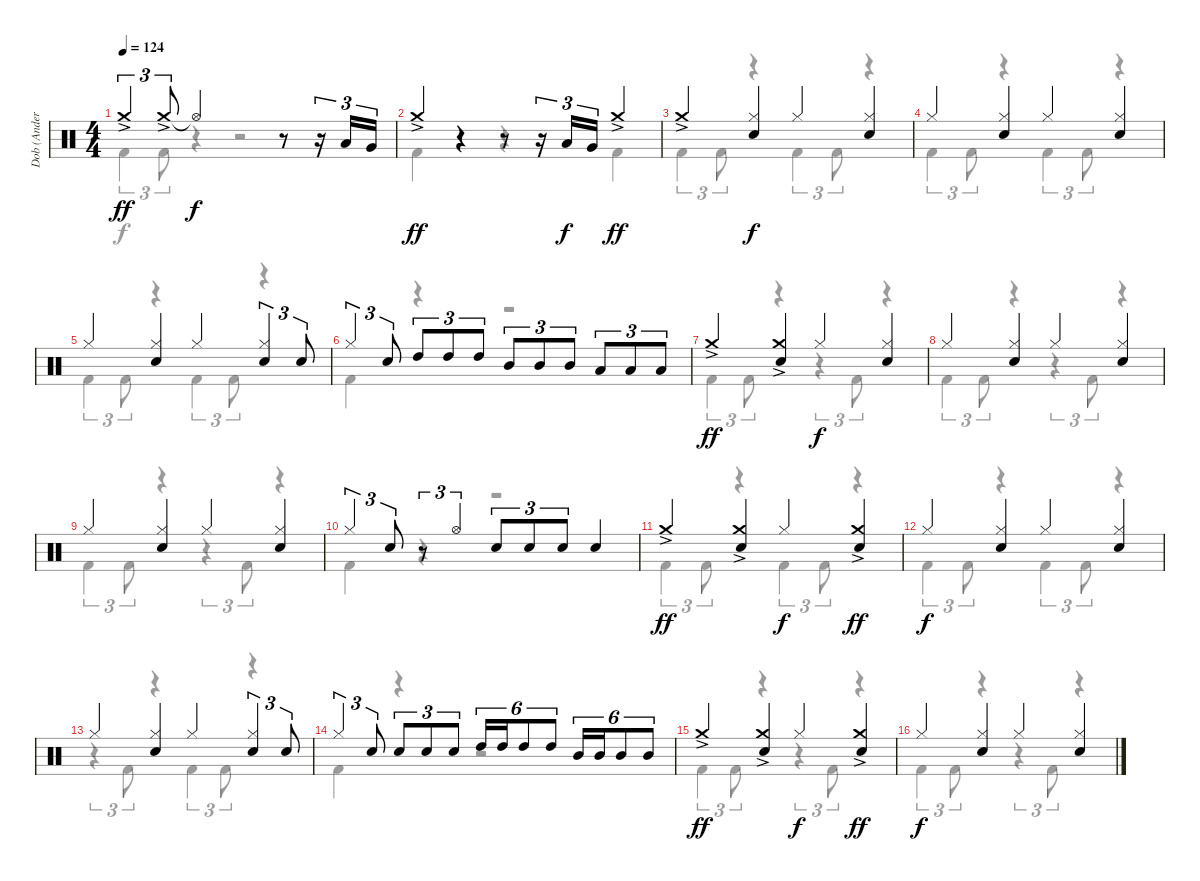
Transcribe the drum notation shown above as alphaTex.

\track ("Dob (Anders Johansson)" "Dob (Ander") {instrument percussion}
\staff {score}
\articulation defaults
\voice
\ts (4 4)
\tempo 124
\clef neutral
\ks c "Crash medium (hit)"{ac}.4{tu (3 2) dy ff} "Crash medium (hit)"{ac}.8{tu (3 2)} "Hi-Hat (open)"{t}.2{dy f}
r.8 r.16{tu (3 2)} "Low Tom (hit)".16{tu (3 2)} "Very Low Tom (hit)".16{tu (3 2)} |
"Crash medium (hit)"{ac}.4{dy ff} r.4 r.8 r.16{tu (3 2)} "Low Tom (hit)".16{tu (3 2) dy f} "Very Low Tom (hit)".16{tu (3 2)} "Crash medium (hit)"{ac}.4{dy ff} |
"Crash medium (hit)"{ac}.4 ("Hi-Hat (closed)" "Electric Snare (hit)").4{dy f} "Hi-Hat (closed)".4 ("Hi-Hat (closed)" "Electric Snare (hit)").4 |
"Hi-Hat (closed)".4 ("Hi-Hat (closed)" "Electric Snare (hit)").4 "Hi-Hat (closed)".4 ("Hi-Hat (closed)" "Electric Snare (hit)").4 |
"Hi-Hat (closed)".4 ("Hi-Hat (closed)" "Electric Snare (hit)").4 "Hi-Hat (closed)".4 ("Hi-Hat (closed)" "Electric Snare (hit)").4{tu (3 2)} "Electric Snare (hit)".8{tu (3 2)} |
"Hi-Hat (closed)".4{tu (3 2)} "Electric Snare (hit)".8{tu (3 2)} "High Tom (hit)".8{tu (3 2)} "High Tom (hit)".8{tu (3 2)} "High Tom (hit)".8{tu (3 2)} "Mid Tom (hit)".8{tu (3 2)} "Mid Tom (hit)".8{tu (3 2)} "Mid Tom (hit)".8{tu (3 2)} "Low Tom (hit)".8{tu (3 2)} "Low Tom (hit)".8{tu (3 2)} "Low Tom (hit)".8{tu (3 2)} |
"Crash medium (hit)"{ac}.4{dy ff} ("Crash medium (hit)"{ac} "Electric Snare (hit)").4 "Hi-Hat (closed)".4{dy f} ("Hi-Hat (closed)" "Electric Snare (hit)").4 |
"Hi-Hat (closed)".4 ("Hi-Hat (closed)" "Electric Snare (hit)").4 "Hi-Hat (closed)".4 ("Hi-Hat (closed)" "Electric Snare (hit)").4 |
"Hi-Hat (closed)".4 ("Hi-Hat (closed)" "Electric Snare (hit)").4 "Hi-Hat (closed)".4 ("Hi-Hat (closed)" "Electric Snare (hit)").4 |
"Hi-Hat (closed)".4{tu (3 2)} "Electric Snare (hit)".8{tu (3 2)} r.8{tu (3 2)} "Hi-Hat (open)".4{tu (3 2)} "Electric Snare (hit)".8{tu (3 2)} "Electric Snare (hit)".8{tu (3 2)} "Electric Snare (hit)".8{tu (3 2)} "Electric Snare (hit)".4 |
"Crash medium (hit)"{ac}.4{dy ff} ("Crash medium (hit)"{ac} "Electric Snare (hit)").4 "Hi-Hat (closed)".4{dy f} ("Crash medium (hit)"{ac} "Electric Snare (hit)").4{dy ff} |
"Hi-Hat (closed)".4{dy f} ("Hi-Hat (closed)" "Electric Snare (hit)").4 "Hi-Hat (closed)".4 ("Hi-Hat (closed)" "Electric Snare (hit)").4 |
"Hi-Hat (closed)".4 ("Hi-Hat (closed)" "Electric Snare (hit)").4 "Hi-Hat (closed)".4 ("Hi-Hat (closed)" "Electric Snare (hit)").4{tu (3 2)} "Electric Snare (hit)".8{tu (3 2)} |
"Hi-Hat (closed)".4{tu (3 2)} "Electric Snare (hit)".8{tu (3 2)} "Electric Snare (hit)".8{tu (3 2)} "Electric Snare (hit)".8{tu (3 2)} "Electric Snare (hit)".8{tu (3 2)} "High Tom (hit)".16{tu (6 4)} "High Tom (hit)".16{tu (6 4)} "High Tom (hit)".8{tu (6 4)} "High Tom (hit)".8{tu (6 4)} "Mid Tom (hit)".16{tu (6 4)} "Mid Tom (hit)".16{tu (6 4)} "Mid Tom (hit)".8{tu (6 4)} "Mid Tom (hit)".8{tu (6 4)} |
"Crash medium (hit)"{ac}.4{dy ff} ("Crash medium (hit)"{ac} "Electric Snare (hit)").4 "Hi-Hat (closed)".4{dy f} ("Crash medium (hit)"{ac} "Electric Snare (hit)").4{dy ff} |
"Hi-Hat (closed)".4{dy f} ("Hi-Hat (closed)" "Electric Snare (hit)").4 "Hi-Hat (closed)".4 ("Hi-Hat (closed)" "Electric Snare (hit)").4
\voice
\clef neutral
\ottava regular
\simile none
\ks c "Kick (hit) 2".4{tu (3 2) dy f} "Kick (hit) 2".8{tu (3 2)}
r.4 r.2 |
"Kick (hit) 2".4 r.4 r.4 "Kick (hit) 2".4 |
"Kick (hit) 2".4{tu (3 2)} "Kick (hit) 2".8{tu (3 2)} r.4 "Kick (hit) 2".4{tu (3 2)} "Kick (hit) 2".8{tu (3 2)} r.4 |
"Kick (hit) 2".4{tu (3 2)} "Kick (hit) 2".8{tu (3 2)} r.4 "Kick (hit) 2".4{tu (3 2)} "Kick (hit) 2".8{tu (3 2)} r.4 |
"Kick (hit) 2".4{tu (3 2)} "Kick (hit) 2".8{tu (3 2)} r.4 "Kick (hit) 2".4{tu (3 2)} "Kick (hit) 2".8{tu (3 2)} r.4 |
"Kick (hit) 2".4 r.4 r.2 |
"Kick (hit) 2".4{tu (3 2)} "Kick (hit) 2".8{tu (3 2)} r.4 r.4{tu (3 2)} "Kick (hit) 2".8{tu (3 2)} r.4 |
"Kick (hit) 2".4{tu (3 2)} "Kick (hit) 2".8{tu (3 2)} r.4 r.4{tu (3 2)} "Kick (hit) 2".8{tu (3 2)} r.4 |
"Kick (hit) 2".4{tu (3 2)} "Kick (hit) 2".8{tu (3 2)} r.4 r.4{tu (3 2)} "Kick (hit) 2".8{tu (3 2)} r.4 |
"Kick (hit) 2".4 r.4 r.2 |
"Kick (hit) 2".4{tu (3 2)} "Kick (hit) 2".8{tu (3 2)} r.4 "Kick (hit) 2".4{tu (3 2)} "Kick (hit) 2".8{tu (3 2)} r.4 |
"Kick (hit) 2".4{tu (3 2)} "Kick (hit) 2".8{tu (3 2)} r.4 "Kick (hit) 2".4{tu (3 2)} "Kick (hit) 2".8{tu (3 2)} r.4 |
r.4{tu (3 2)} "Kick (hit) 2".8{tu (3 2)} r.4 "Kick (hit) 2".4{tu (3 2)} "Kick (hit) 2".8{tu (3 2)} r.4 |
"Kick (hit) 2".4 r.4 r.2 |
"Kick (hit) 2".4{tu (3 2)} "Kick (hit) 2".8{tu (3 2)} r.4 r.4{tu (3 2)} "Kick (hit) 2".8{tu (3 2)} r.4 |
"Kick (hit) 2".4{tu (3 2)} "Kick (hit) 2".8{tu (3 2)} r.4 r.4{tu (3 2)} "Kick (hit) 2".8{tu (3 2)} r.4
